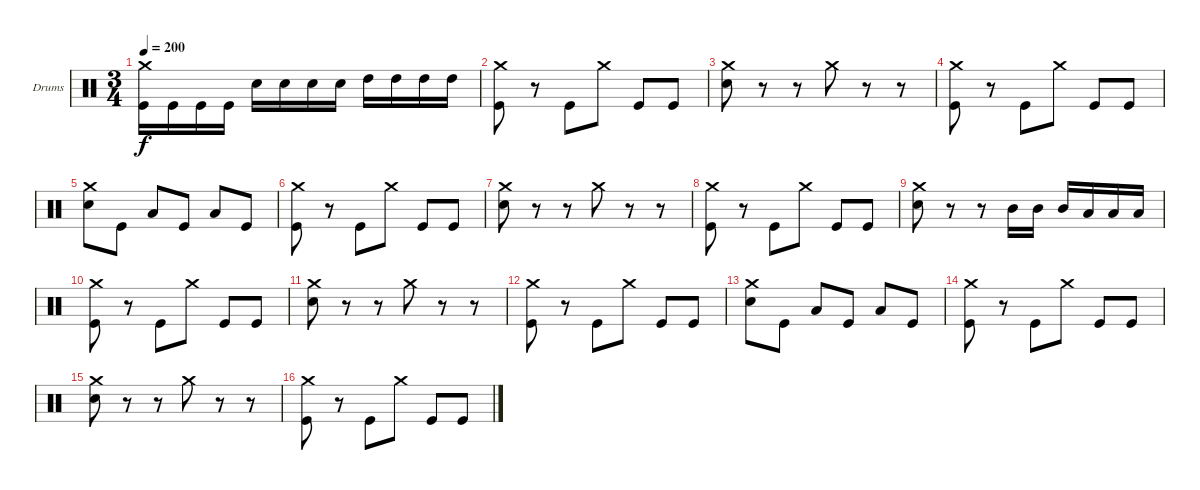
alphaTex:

\bracketExtendMode groupsimilarinstruments
\firstSystemTrackNameOrientation horizontal
\otherSystemsTrackNameOrientation horizontal
\track ("Drumkit" "Drums") {instrument percussion}
\staff {score}
\articulation defaults
\ts (3 4)
\tempo 200
\clef neutral
\ks c
("Crash medium (hit)" "Kick (hit)").16{dy f} "Kick (hit)".16 "Kick (hit)".16 "Kick (hit)".16 "Snare (hit) 2".16 "Snare (hit) 2".16 "Snare (hit) 2".16 "Snare (hit) 2".16 "High Tom (hit)".16 "High Tom (hit)".16 "High Tom (hit)".16 "High Tom (hit)".16 |
("Kick (hit)" "Crash medium (hit)").8 r.8 "Kick (hit)".8 "Crash medium (hit)".8 "Kick (hit)".8 "Kick (hit)".8 |
("Snare (hit) 2" "Crash medium (hit)").8 r.8 r.8 "Crash medium (hit)".8 r.8 r.8 |
("Kick (hit)" "Crash medium (hit)").8 r.8 "Kick (hit)".8 "Crash medium (hit)".8 "Kick (hit)".8 "Kick (hit)".8 |
("Snare (hit) 2" "Crash medium (hit)").8 "Kick (hit)".8 "Low Tom (hit)".8 "Kick (hit)".8 "Low Tom (hit)".8 "Kick (hit)".8 |
("Kick (hit)" "Crash medium (hit)").8 r.8 "Kick (hit)".8 "Crash medium (hit)".8 "Kick (hit)".8 "Kick (hit)".8 |
("Snare (hit) 2" "Crash medium (hit)").8 r.8 r.8 "Crash medium (hit)".8 r.8 r.8 |
("Kick (hit)" "Crash medium (hit)").8 r.8 "Kick (hit)".8 "Crash medium (hit)".8 "Kick (hit)".8 "Kick (hit)".8 |
("Snare (hit) 2" "Crash medium (hit)").8 r.8 r.8 "Mid Tom (hit)".16 "Mid Tom (hit)".16 "Mid Tom (hit)".16 "Low Tom (hit)".16 "Low Tom (hit)".16 "Low Tom (hit)".16 |
("Kick (hit)" "Crash medium (hit)").8 r.8 "Kick (hit)".8 "Crash medium (hit)".8 "Kick (hit)".8 "Kick (hit)".8 |
("Snare (hit) 2" "Crash medium (hit)").8 r.8 r.8 "Crash medium (hit)".8 r.8 r.8 |
("Kick (hit)" "Crash medium (hit)").8 r.8 "Kick (hit)".8 "Crash medium (hit)".8 "Kick (hit)".8 "Kick (hit)".8 |
("Snare (hit) 2" "Crash medium (hit)").8 "Kick (hit)".8 "Low Tom (hit)".8 "Kick (hit)".8 "Low Tom (hit)".8 "Kick (hit)".8 |
("Kick (hit)" "Crash medium (hit)").8 r.8 "Kick (hit)".8 "Crash medium (hit)".8 "Kick (hit)".8 "Kick (hit)".8 |
("Snare (hit) 2" "Crash medium (hit)").8 r.8 r.8 "Crash medium (hit)".8 r.8 r.8 |
("Kick (hit)" "Crash medium (hit)").8 r.8 "Kick (hit)".8 "Crash medium (hit)".8 "Kick (hit)".8 "Kick (hit)".8
